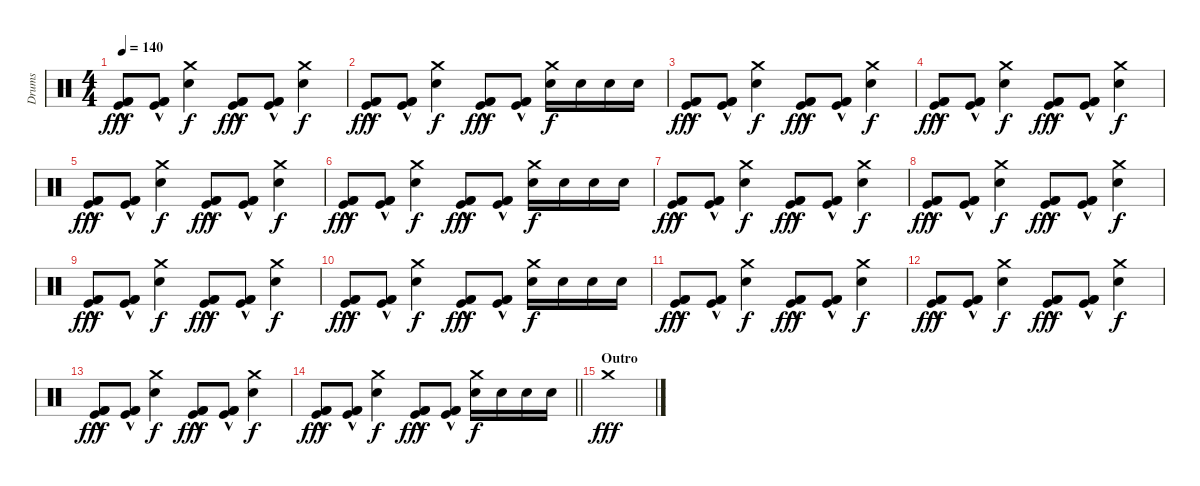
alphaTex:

\track ("Drums" "Drums") {instrument percussion}
\staff {score}
\articulation defaults
\ts (4 4)
\tempo 140
\clef neutral
\ks c
("Kick (hit) 2"{hac} "Kick (hit)"{hac} "Kick (hit) 2"{hac}).8{dy fff} ("Kick (hit) 2"{hac} "Kick (hit)"{hac} "Kick (hit) 2"{hac}).8 ("Snare (hit) 2" "Crash medium (hit)").4{dy f} ("Kick (hit) 2"{hac} "Kick (hit)"{hac} "Kick (hit) 2"{hac}).8{dy fff} ("Kick (hit) 2"{hac} "Kick (hit)"{hac} "Kick (hit) 2"{hac}).8 ("Snare (hit) 2" "Crash medium (hit)").4{dy f} |
("Kick (hit) 2"{hac} "Kick (hit)"{hac} "Kick (hit) 2"{hac}).8{dy fff} ("Kick (hit) 2"{hac} "Kick (hit)"{hac} "Kick (hit) 2"{hac}).8 ("Snare (hit) 2" "Crash medium (hit)").4{dy f} ("Kick (hit) 2"{hac} "Kick (hit)"{hac} "Kick (hit) 2"{hac}).8{dy fff} ("Kick (hit) 2"{hac} "Kick (hit)"{hac} "Kick (hit) 2"{hac}).8 ("Snare (hit) 2" "Crash medium (hit)").16{dy f} "Snare (hit) 2".16 "Snare (hit) 2".16 "Snare (hit) 2".16 |
("Kick (hit) 2"{hac} "Kick (hit)"{hac} "Kick (hit) 2"{hac}).8{dy fff} ("Kick (hit) 2"{hac} "Kick (hit)"{hac} "Kick (hit) 2"{hac}).8 ("Snare (hit) 2" "Crash medium (hit)").4{dy f} ("Kick (hit) 2"{hac} "Kick (hit)"{hac} "Kick (hit) 2"{hac}).8{dy fff} ("Kick (hit) 2"{hac} "Kick (hit)"{hac} "Kick (hit) 2"{hac}).8 ("Snare (hit) 2" "Crash medium (hit)").4{dy f} |
("Kick (hit) 2"{hac} "Kick (hit)"{hac} "Kick (hit) 2"{hac}).8{dy fff} ("Kick (hit) 2"{hac} "Kick (hit)"{hac} "Kick (hit) 2"{hac}).8 ("Snare (hit) 2" "Crash medium (hit)").4{dy f} ("Kick (hit) 2"{hac} "Kick (hit)"{hac} "Kick (hit) 2"{hac}).8{dy fff} ("Kick (hit) 2"{hac} "Kick (hit)"{hac} "Kick (hit) 2"{hac}).8 ("Snare (hit) 2" "Crash medium (hit)").4{dy f} |
("Kick (hit) 2"{hac} "Kick (hit)"{hac} "Kick (hit) 2"{hac}).8{dy fff} ("Kick (hit) 2"{hac} "Kick (hit)"{hac} "Kick (hit) 2"{hac}).8 ("Snare (hit) 2" "Crash medium (hit)").4{dy f} ("Kick (hit) 2"{hac} "Kick (hit)"{hac} "Kick (hit) 2"{hac}).8{dy fff} ("Kick (hit) 2"{hac} "Kick (hit)"{hac} "Kick (hit) 2"{hac}).8 ("Snare (hit) 2" "Crash medium (hit)").4{dy f} |
("Kick (hit) 2"{hac} "Kick (hit)"{hac} "Kick (hit) 2"{hac}).8{dy fff} ("Kick (hit) 2"{hac} "Kick (hit)"{hac} "Kick (hit) 2"{hac}).8 ("Snare (hit) 2" "Crash medium (hit)").4{dy f} ("Kick (hit) 2"{hac} "Kick (hit)"{hac} "Kick (hit) 2"{hac}).8{dy fff} ("Kick (hit) 2"{hac} "Kick (hit)"{hac} "Kick (hit) 2"{hac}).8 ("Snare (hit) 2" "Crash medium (hit)").16{dy f} "Snare (hit) 2".16 "Snare (hit) 2".16 "Snare (hit) 2".16 |
("Kick (hit) 2"{hac} "Kick (hit)"{hac} "Kick (hit) 2"{hac}).8{dy fff} ("Kick (hit) 2"{hac} "Kick (hit)"{hac} "Kick (hit) 2"{hac}).8 ("Snare (hit) 2" "Crash medium (hit)").4{dy f} ("Kick (hit) 2"{hac} "Kick (hit)"{hac} "Kick (hit) 2"{hac}).8{dy fff} ("Kick (hit) 2"{hac} "Kick (hit)"{hac} "Kick (hit) 2"{hac}).8 ("Snare (hit) 2" "Crash medium (hit)").4{dy f} |
("Kick (hit) 2"{hac} "Kick (hit)"{hac} "Kick (hit) 2"{hac}).8{dy fff} ("Kick (hit) 2"{hac} "Kick (hit)"{hac} "Kick (hit) 2"{hac}).8 ("Snare (hit) 2" "Crash medium (hit)").4{dy f} ("Kick (hit) 2"{hac} "Kick (hit)"{hac} "Kick (hit) 2"{hac}).8{dy fff} ("Kick (hit) 2"{hac} "Kick (hit)"{hac} "Kick (hit) 2"{hac}).8 ("Snare (hit) 2" "Crash medium (hit)").4{dy f} |
("Kick (hit) 2"{hac} "Kick (hit)"{hac} "Kick (hit) 2"{hac}).8{dy fff} ("Kick (hit) 2"{hac} "Kick (hit)"{hac} "Kick (hit) 2"{hac}).8 ("Snare (hit) 2" "Crash medium (hit)").4{dy f} ("Kick (hit) 2"{hac} "Kick (hit)"{hac} "Kick (hit) 2"{hac}).8{dy fff} ("Kick (hit) 2"{hac} "Kick (hit)"{hac} "Kick (hit) 2"{hac}).8 ("Snare (hit) 2" "Crash medium (hit)").4{dy f} |
("Kick (hit) 2"{hac} "Kick (hit)"{hac} "Kick (hit) 2"{hac}).8{dy fff} ("Kick (hit) 2"{hac} "Kick (hit)"{hac} "Kick (hit) 2"{hac}).8 ("Snare (hit) 2" "Crash medium (hit)").4{dy f} ("Kick (hit) 2"{hac} "Kick (hit)"{hac} "Kick (hit) 2"{hac}).8{dy fff} ("Kick (hit) 2"{hac} "Kick (hit)"{hac} "Kick (hit) 2"{hac}).8 ("Snare (hit) 2" "Crash medium (hit)").16{dy f} "Snare (hit) 2".16 "Snare (hit) 2".16 "Snare (hit) 2".16 |
("Kick (hit) 2"{hac} "Kick (hit)"{hac} "Kick (hit) 2"{hac}).8{dy fff} ("Kick (hit) 2"{hac} "Kick (hit)"{hac} "Kick (hit) 2"{hac}).8 ("Snare (hit) 2" "Crash medium (hit)").4{dy f} ("Kick (hit) 2"{hac} "Kick (hit)"{hac} "Kick (hit) 2"{hac}).8{dy fff} ("Kick (hit) 2"{hac} "Kick (hit)"{hac} "Kick (hit) 2"{hac}).8 ("Snare (hit) 2" "Crash medium (hit)").4{dy f} |
("Kick (hit) 2"{hac} "Kick (hit)"{hac} "Kick (hit) 2"{hac}).8{dy fff} ("Kick (hit) 2"{hac} "Kick (hit)"{hac} "Kick (hit) 2"{hac}).8 ("Snare (hit) 2" "Crash medium (hit)").4{dy f} ("Kick (hit) 2"{hac} "Kick (hit)"{hac} "Kick (hit) 2"{hac}).8{dy fff} ("Kick (hit) 2"{hac} "Kick (hit)"{hac} "Kick (hit) 2"{hac}).8 ("Snare (hit) 2" "Crash medium (hit)").4{dy f} |
("Kick (hit) 2"{hac} "Kick (hit)"{hac} "Kick (hit) 2"{hac}).8{dy fff} ("Kick (hit) 2"{hac} "Kick (hit)"{hac} "Kick (hit) 2"{hac}).8 ("Snare (hit) 2" "Crash medium (hit)").4{dy f} ("Kick (hit) 2"{hac} "Kick (hit)"{hac} "Kick (hit) 2"{hac}).8{dy fff} ("Kick (hit) 2"{hac} "Kick (hit)"{hac} "Kick (hit) 2"{hac}).8 ("Snare (hit) 2" "Crash medium (hit)").4{dy f} |
\barLineRight lightlight
("Kick (hit) 2"{hac} "Kick (hit)"{hac} "Kick (hit) 2"{hac}).8{dy fff} ("Kick (hit) 2"{hac} "Kick (hit)"{hac} "Kick (hit) 2"{hac}).8 ("Snare (hit) 2" "Crash medium (hit)").4{dy f} ("Kick (hit) 2"{hac} "Kick (hit)"{hac} "Kick (hit) 2"{hac}).8{dy fff} ("Kick (hit) 2"{hac} "Kick (hit)"{hac} "Kick (hit) 2"{hac}).8 ("Snare (hit) 2" "Crash medium (hit)").16{dy f} "Snare (hit) 2".16 "Snare (hit) 2".16 "Snare (hit) 2".16 |
\section ("" "Outro")
"Crash medium (hit)".1{dy fff}
